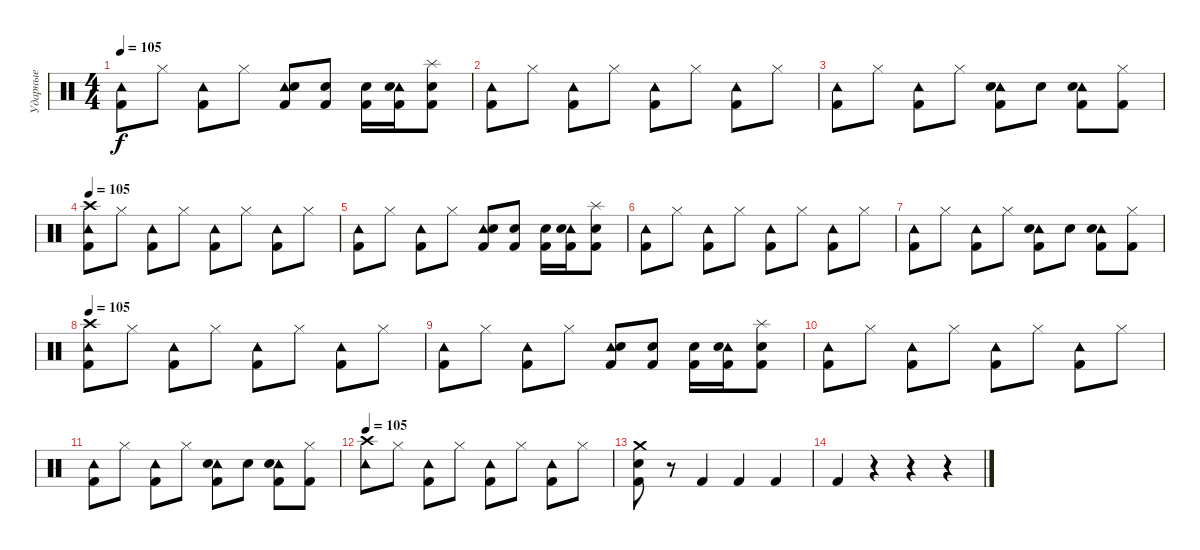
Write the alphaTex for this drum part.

\track ("Ударные" "Ударные") {instrument percussion}
\staff {score}
\articulation defaults
\ts (4 4)
\tempo 105
\clef neutral
\ks c
("Tambourine (hit)" "Kick (hit) 2").8{dy f} "Hi-Hat (closed)".8 ("Tambourine (hit)" "Kick (hit) 2").8 "Hi-Hat (closed)".8 ("Tambourine (hit)" "Snare (hit) 2" "Kick (hit) 2").8 ("Snare (hit) 2" "Kick (hit) 2").8 ("Electric Snare (hit)" "Kick (hit) 2").16 ("Tambourine (hit)" "Electric Snare (hit)" "Kick (hit) 2").16 ("Splash (hit)" "Snare (hit) 2" "Kick (hit) 2").8 |
("Tambourine (hit)" "Kick (hit) 2").8 "Hi-Hat (closed)".8 ("Tambourine (hit)" "Kick (hit) 2").8 "Hi-Hat (closed)".8 ("Tambourine (hit)" "Kick (hit) 2").8 "Hi-Hat (closed)".8 ("Tambourine (hit)" "Kick (hit) 2").8 "Hi-Hat (closed)".8 |
("Tambourine (hit)" "Kick (hit) 2").8 "Hi-Hat (closed)".8 ("Tambourine (hit)" "Kick (hit) 2").8 "Hi-Hat (closed)".8 ("Tambourine (hit)" "Snare (hit) 2" "Kick (hit) 2").8 "Snare (hit) 2".8 ("Tambourine (hit)" "Electric Snare (hit)" "Kick (hit) 2").8 ("Kick (hit) 2" "Hi-Hat (closed)").8 |
\tempo 105
("Tambourine (hit)" "Crash high (hit)" "Kick (hit) 2").8 "Hi-Hat (closed)".8 ("Tambourine (hit)" "Kick (hit) 2").8 "Hi-Hat (closed)".8 ("Tambourine (hit)" "Kick (hit) 2").8 "Hi-Hat (closed)".8 ("Tambourine (hit)" "Kick (hit) 2").8 "Hi-Hat (closed)".8 |
("Tambourine (hit)" "Kick (hit) 2").8 "Hi-Hat (closed)".8 ("Tambourine (hit)" "Kick (hit) 2").8 "Hi-Hat (closed)".8 ("Tambourine (hit)" "Snare (hit) 2" "Kick (hit) 2").8 ("Snare (hit) 2" "Kick (hit) 2").8 ("Electric Snare (hit)" "Kick (hit) 2").16 ("Tambourine (hit)" "Electric Snare (hit)" "Kick (hit) 2").16 ("Splash (hit)" "Snare (hit) 2" "Kick (hit) 2").8 |
("Tambourine (hit)" "Kick (hit) 2").8 "Hi-Hat (closed)".8 ("Tambourine (hit)" "Kick (hit) 2").8 "Hi-Hat (closed)".8 ("Tambourine (hit)" "Kick (hit) 2").8 "Hi-Hat (closed)".8 ("Tambourine (hit)" "Kick (hit) 2").8 "Hi-Hat (closed)".8 |
("Tambourine (hit)" "Kick (hit) 2").8 "Hi-Hat (closed)".8 ("Tambourine (hit)" "Kick (hit) 2").8 "Hi-Hat (closed)".8 ("Tambourine (hit)" "Snare (hit) 2" "Kick (hit) 2").8 "Snare (hit) 2".8 ("Tambourine (hit)" "Electric Snare (hit)" "Kick (hit) 2").8 ("Kick (hit) 2" "Hi-Hat (closed)").8 |
\tempo 105
("Tambourine (hit)" "Crash high (hit)" "Kick (hit) 2").8 "Hi-Hat (closed)".8 ("Tambourine (hit)" "Kick (hit) 2").8 "Hi-Hat (closed)".8 ("Tambourine (hit)" "Kick (hit) 2").8 "Hi-Hat (closed)".8 ("Tambourine (hit)" "Kick (hit) 2").8 "Hi-Hat (closed)".8 |
("Tambourine (hit)" "Kick (hit) 2").8 "Hi-Hat (closed)".8 ("Tambourine (hit)" "Kick (hit) 2").8 "Hi-Hat (closed)".8 ("Tambourine (hit)" "Snare (hit) 2" "Kick (hit) 2").8 ("Snare (hit) 2" "Kick (hit) 2").8 ("Electric Snare (hit)" "Kick (hit) 2").16 ("Tambourine (hit)" "Electric Snare (hit)" "Kick (hit) 2").16 ("Splash (hit)" "Snare (hit) 2" "Kick (hit) 2").8 |
("Tambourine (hit)" "Kick (hit) 2").8 "Hi-Hat (closed)".8 ("Tambourine (hit)" "Kick (hit) 2").8 "Hi-Hat (closed)".8 ("Tambourine (hit)" "Kick (hit) 2").8 "Hi-Hat (closed)".8 ("Tambourine (hit)" "Kick (hit) 2").8 "Hi-Hat (closed)".8 |
("Tambourine (hit)" "Kick (hit) 2").8 "Hi-Hat (closed)".8 ("Tambourine (hit)" "Kick (hit) 2").8 "Hi-Hat (closed)".8 ("Tambourine (hit)" "Snare (hit) 2" "Kick (hit) 2").8 "Snare (hit) 2".8 ("Tambourine (hit)" "Electric Snare (hit)" "Kick (hit) 2").8 ("Kick (hit) 2" "Hi-Hat (closed)").8 |
\tempo 105
("Tambourine (hit)" "Crash high (hit)").8 "Hi-Hat (closed)".8 ("Tambourine (hit)" "Kick (hit) 2").8 "Hi-Hat (closed)".8 ("Tambourine (hit)" "Kick (hit) 2").8 "Hi-Hat (closed)".8 ("Tambourine (hit)" "Kick (hit) 2").8 "Hi-Hat (closed)".8 |
("Crash medium (hit)" "Kick (hit) 2" "Snare (hit) 2").8 r.8 "Kick (hit) 2".4 "Kick (hit) 2".4 "Kick (hit) 2".4 |
"Kick (hit) 2".4 r.4 r.4 r.4
